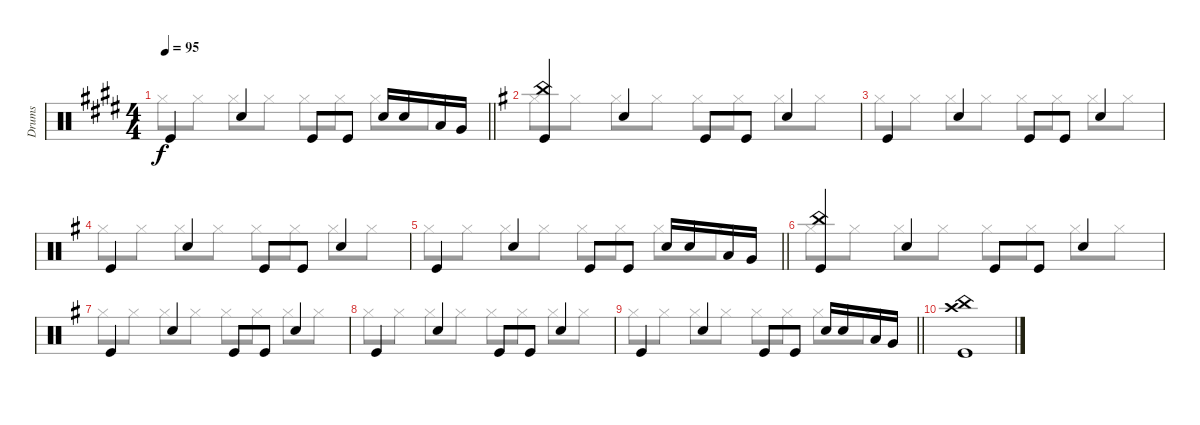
\track ("Drums" "Drums") {instrument percussion}
\staff {score}
\articulation defaults
\voice
\ts (4 4)
\tempo 95
\clef neutral
\barLineRight lightlight
\ks c#minor "Kick (hit)".4{dy f} "Snare (hit) 2".4 "Kick (hit)".8 "Kick (hit)".8 "Snare (hit) 2".16 "Snare (hit) 2".16 "Low Tom (hit)".16 "Very Low Tom (hit)".16
|
\ks eminor
("China (hit)" "Kick (hit)").4 "Snare (hit) 2".4 "Kick (hit)".8 "Kick (hit)".8 "Snare (hit) 2".4 |
"Kick (hit)".4 "Snare (hit) 2".4 "Kick (hit)".8 "Kick (hit)".8 "Snare (hit) 2".4 |
"Kick (hit)".4 "Snare (hit) 2".4 "Kick (hit)".8 "Kick (hit)".8 "Snare (hit) 2".4 |
\barLineRight lightlight "Kick (hit)".4 "Snare (hit) 2".4 "Kick (hit)".8 "Kick (hit)".8 "Snare (hit) 2".16 "Snare (hit) 2".16 "Low Tom (hit)".16 "Very Low Tom (hit)".16
|
("China (hit)" "Kick (hit)").4 "Snare (hit) 2".4 "Kick (hit)".8 "Kick (hit)".8 "Snare (hit) 2".4 |
"Kick (hit)".4 "Snare (hit) 2".4 "Kick (hit)".8 "Kick (hit)".8 "Snare (hit) 2".4 |
"Kick (hit)".4 "Snare (hit) 2".4 "Kick (hit)".8 "Kick (hit)".8 "Snare (hit) 2".4 |
\barLineRight lightlight "Kick (hit)".4 "Snare (hit) 2".4 "Kick (hit)".8 "Kick (hit)".8 "Snare (hit) 2".16 "Snare (hit) 2".16 "Low Tom (hit)".16 "Very Low Tom (hit)".16
|
("China (hit)" "Crash high (hit)" "Kick (hit)").1
\voice
\clef neutral
\ottava regular
\simile none
\barLineRight lightlight
\ks c#minor "Hi-Hat (closed)".8{dy f} "Hi-Hat (closed)".8 "Hi-Hat (closed)".8 "Hi-Hat (closed)".8 "Hi-Hat (closed)".8 "Hi-Hat (closed)".8 "Hi-Hat (closed)".8 "Hi-Hat (closed)".8
|
\ks eminor "Hi-Hat (closed)".8 "Hi-Hat (closed)".8 "Hi-Hat (closed)".8 "Hi-Hat (closed)".8 "Hi-Hat (closed)".8 "Hi-Hat (closed)".8 "Hi-Hat (closed)".8 "Hi-Hat (closed)".8
|
"Hi-Hat (closed)".8 "Hi-Hat (closed)".8 "Hi-Hat (closed)".8 "Hi-Hat (closed)".8 "Hi-Hat (closed)".8 "Hi-Hat (closed)".8 "Hi-Hat (closed)".8 "Hi-Hat (closed)".8 |
"Hi-Hat (closed)".8 "Hi-Hat (closed)".8 "Hi-Hat (closed)".8 "Hi-Hat (closed)".8 "Hi-Hat (closed)".8 "Hi-Hat (closed)".8 "Hi-Hat (closed)".8 "Hi-Hat (closed)".8 |
\barLineRight lightlight "Hi-Hat (closed)".8 "Hi-Hat (closed)".8 "Hi-Hat (closed)".8 "Hi-Hat (closed)".8 "Hi-Hat (closed)".8 "Hi-Hat (closed)".8 "Hi-Hat (closed)".8 "Hi-Hat (closed)".8
|
"Hi-Hat (closed)".8 "Hi-Hat (closed)".8 "Hi-Hat (closed)".8 "Hi-Hat (closed)".8 "Hi-Hat (closed)".8 "Hi-Hat (closed)".8 "Hi-Hat (closed)".8 "Hi-Hat (closed)".8 |
"Hi-Hat (closed)".8 "Hi-Hat (closed)".8 "Hi-Hat (closed)".8 "Hi-Hat (closed)".8 "Hi-Hat (closed)".8 "Hi-Hat (closed)".8 "Hi-Hat (closed)".8 "Hi-Hat (closed)".8 |
"Hi-Hat (closed)".8 "Hi-Hat (closed)".8 "Hi-Hat (closed)".8 "Hi-Hat (closed)".8 "Hi-Hat (closed)".8 "Hi-Hat (closed)".8 "Hi-Hat (closed)".8 "Hi-Hat (closed)".8 |
\barLineRight lightlight "Hi-Hat (closed)".8 "Hi-Hat (closed)".8 "Hi-Hat (closed)".8 "Hi-Hat (closed)".8 "Hi-Hat (closed)".8 "Hi-Hat (closed)".8 "Hi-Hat (closed)".8 "Hi-Hat (closed)".8
|
